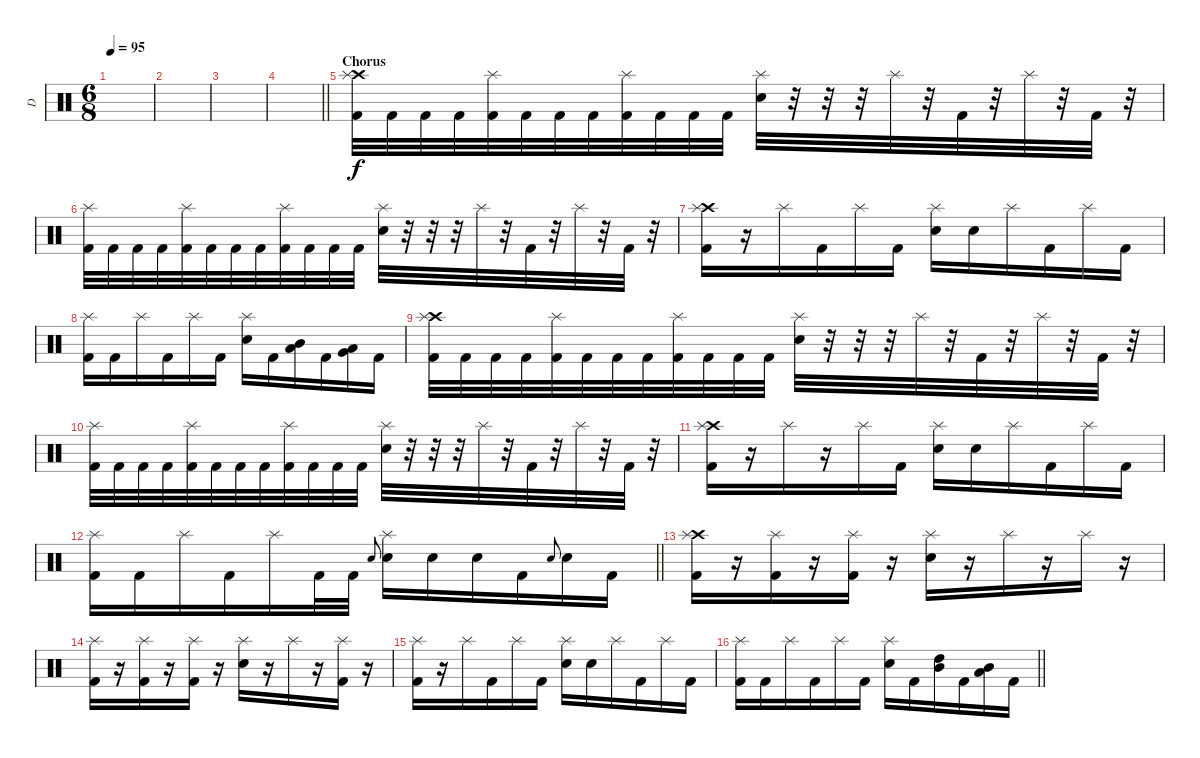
\track ("D" "D") {instrument percussion}
\staff {score}
\articulation defaults
\ts (6 8)
\tempo 95
\clef neutral
\ks c
|
|
|
\barLineRight lightlight
|
\section ("" "Chorus")
("Crash high (hit)" "Kick (hit) 2" "Splash (hit)").32 "Kick (hit) 2".32 "Kick (hit) 2".32 "Kick (hit) 2".32 ("Kick (hit) 2" "Splash (hit)").32 "Kick (hit) 2".32 "Kick (hit) 2".32 "Kick (hit) 2".32 ("Kick (hit) 2" "Splash (hit)").32 "Kick (hit) 2".32 "Kick (hit) 2".32 "Kick (hit) 2".32 ("Electric Snare (hit)" "Splash (hit)").32 r.32 r.32 r.32 "Splash (hit)".32 r.32 "Kick (hit) 2".32 r.32 "Splash (hit)".32 r.32 "Kick (hit) 2".32 r.32 |
("Kick (hit) 2" "Splash (hit)").32 "Kick (hit) 2".32 "Kick (hit) 2".32 "Kick (hit) 2".32 ("Kick (hit) 2" "Splash (hit)").32 "Kick (hit) 2".32 "Kick (hit) 2".32 "Kick (hit) 2".32 ("Kick (hit) 2" "Splash (hit)").32 "Kick (hit) 2".32 "Kick (hit) 2".32 "Kick (hit) 2".32 ("Electric Snare (hit)" "Splash (hit)").32 r.32 r.32 r.32 "Splash (hit)".32 r.32 "Kick (hit) 2".32 r.32 "Splash (hit)".32 r.32 "Kick (hit) 2".32 r.32 |
("Crash high (hit)" "Kick (hit) 2" "Splash (hit)").16 r.16 "Splash (hit)".16 "Kick (hit) 2".16 "Splash (hit)".16 "Kick (hit) 2".16 ("Electric Snare (hit)" "Splash (hit)").16 "Electric Snare (hit)".16 "Splash (hit)".16 "Kick (hit) 2".16 "Splash (hit)".16 "Kick (hit) 2".16 |
("Kick (hit) 2" "Splash (hit)").16 "Kick (hit) 2".16 "Splash (hit)".16 "Kick (hit) 2".16 "Splash (hit)".16 "Kick (hit) 2".16 ("Electric Snare (hit)" "Splash (hit)").16 "Kick (hit) 2".16 ("Mid Tom (hit)" "Low Tom (hit)").16 "Kick (hit) 2".16 ("Very Low Tom (hit)" "Low Tom (hit)").16 "Kick (hit) 2".16 |
("Crash high (hit)" "Kick (hit) 2" "Splash (hit)").32 "Kick (hit) 2".32 "Kick (hit) 2".32 "Kick (hit) 2".32 ("Kick (hit) 2" "Splash (hit)").32 "Kick (hit) 2".32 "Kick (hit) 2".32 "Kick (hit) 2".32 ("Kick (hit) 2" "Splash (hit)").32 "Kick (hit) 2".32 "Kick (hit) 2".32 "Kick (hit) 2".32 ("Electric Snare (hit)" "Splash (hit)").32 r.32 r.32 r.32 "Splash (hit)".32 r.32 "Kick (hit) 2".32 r.32 "Splash (hit)".32 r.32 "Kick (hit) 2".32 r.32 |
("Kick (hit) 2" "Splash (hit)").32 "Kick (hit) 2".32 "Kick (hit) 2".32 "Kick (hit) 2".32 ("Kick (hit) 2" "Splash (hit)").32 "Kick (hit) 2".32 "Kick (hit) 2".32 "Kick (hit) 2".32 ("Kick (hit) 2" "Splash (hit)").32 "Kick (hit) 2".32 "Kick (hit) 2".32 "Kick (hit) 2".32 ("Electric Snare (hit)" "Splash (hit)").32 r.32 r.32 r.32 "Splash (hit)".32 r.32 "Kick (hit) 2".32 r.32 "Splash (hit)".32 r.32 "Kick (hit) 2".32 r.32 |
("Crash high (hit)" "Kick (hit) 2" "Splash (hit)").16 r.16 "Splash (hit)".16 r.16 "Splash (hit)".16 "Kick (hit) 2".16 ("Electric Snare (hit)" "Splash (hit)").16 "Electric Snare (hit)".16 "Splash (hit)".16 "Kick (hit) 2".16 "Splash (hit)".16 "Kick (hit) 2".16 |
\barLineRight lightlight
("Kick (hit) 2" "Splash (hit)").16 "Kick (hit) 2".16 "Splash (hit)".16 "Kick (hit) 2".16 "Splash (hit)".16 "Kick (hit) 2".32 "Kick (hit) 2".32 "Electric Snare (hit)".8{gr onbeat} ("Electric Snare (hit)" "Splash (hit)").16 "Electric Snare (hit)".16 "Electric Snare (hit)".16 "Kick (hit) 2".16 "Electric Snare (hit)".8{gr onbeat} "Electric Snare (hit)".16 "Kick (hit) 2".16 |
("Crash high (hit)" "Kick (hit) 2" "Splash (hit)").16 r.16 ("Kick (hit) 2" "Splash (hit)").16 r.16 ("Kick (hit) 2" "Splash (hit)").16 r.16 ("Electric Snare (hit)" "Splash (hit)").16 r.16 "Splash (hit)".16 r.16 "Splash (hit)".16 r.16 |
("Kick (hit) 2" "Splash (hit)").16 r.16 ("Kick (hit) 2" "Splash (hit)").16 r.16 ("Kick (hit) 2" "Splash (hit)").16 r.16 ("Electric Snare (hit)" "Splash (hit)").16 r.16 "Splash (hit)".16 r.16 ("Kick (hit) 2" "Splash (hit)").16 r.16 |
("Kick (hit) 2" "Splash (hit)").16 r.16 "Splash (hit)".16 "Kick (hit) 2".16 "Splash (hit)".16 "Kick (hit) 2".16 ("Electric Snare (hit)" "Splash (hit)").16 "Electric Snare (hit)".16 "Splash (hit)".16 "Kick (hit) 2".16 "Splash (hit)".16 "Kick (hit) 2".16 |
\barLineRight lightlight
("Kick (hit) 2" "Splash (hit)").16 "Kick (hit) 2".16 "Splash (hit)".16 "Kick (hit) 2".16 "Splash (hit)".16 "Kick (hit) 2".16 ("Electric Snare (hit)" "Splash (hit)").16 "Kick (hit) 2".16 ("Mid Tom (hit)" "High Tom (hit)").16 "Kick (hit) 2".16 ("Mid Tom (hit)" "Low Tom (hit)").16 "Kick (hit) 2".16
